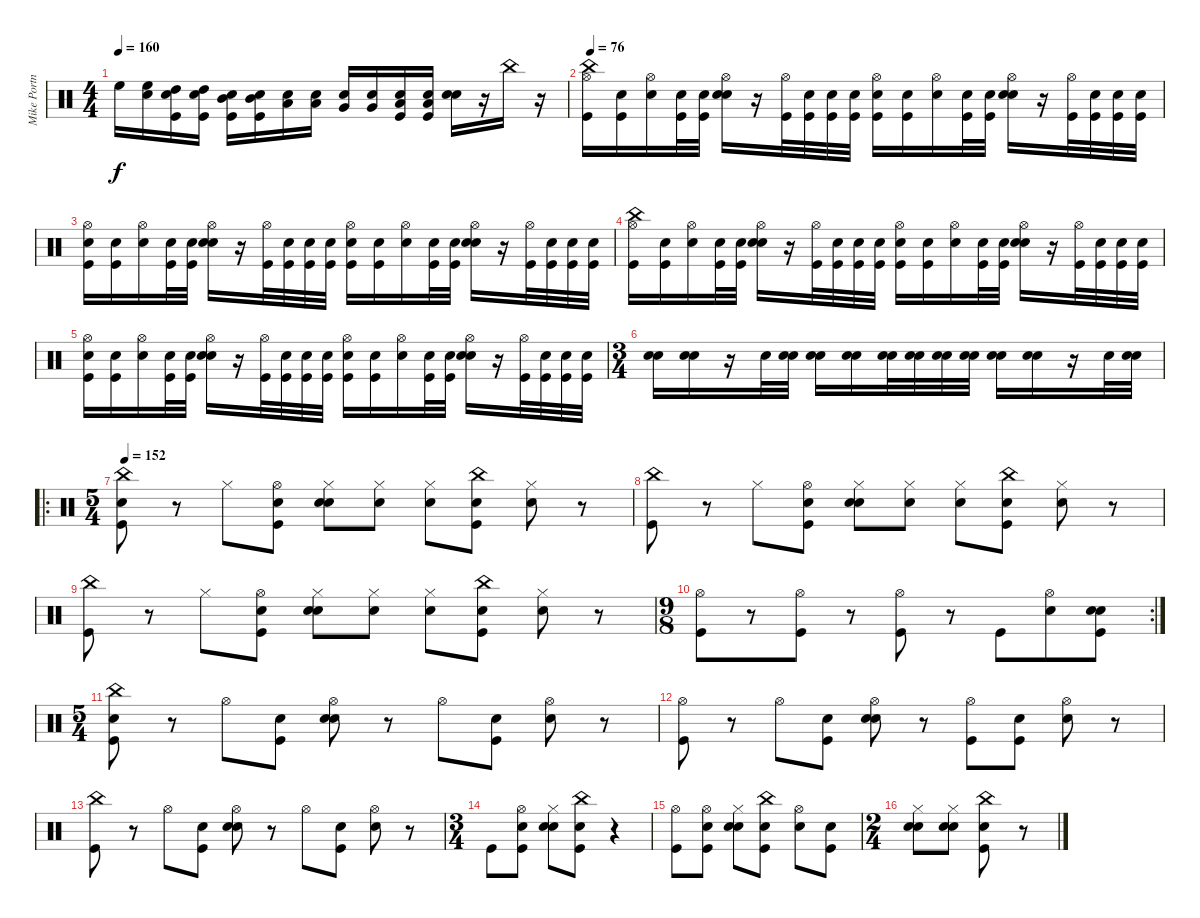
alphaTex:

\track ("Mike Portnoy" "Mike Portn") {instrument percussion}
\staff {score}
\articulation defaults
\ts (4 4)
\tempo 160
\clef neutral
\ks c "High Floor Tom (hit)".16{dy f}
("Snare (hit)" "High Floor Tom (hit)").16 ("Snare (hit)" "Kick (hit)" "High Tom (hit)").16 ("Snare (hit)" "Kick (hit)" "High Tom (hit)").16 ("Snare (hit)" "Kick (hit)" "Mid Tom (hit)").16 ("Snare (hit)" "Kick (hit)" "Mid Tom (hit)").16 ("Snare (hit)" "Low Tom (hit)").16 ("Snare (hit)" "Low Tom (hit)").16 ("Snare (hit)" "Very Low Tom (hit)").16 ("Snare (hit)" "Very Low Tom (hit)").16 ("Snare (hit)" "Kick (hit)" "Low Floor Tom (hit)").16 ("Snare (hit)" "Kick (hit)" "Low Floor Tom (hit)").16 ("Snare (hit)" "Snare (hit) 2").16 r.16 "China (hit)".16 r.16 |
\tempo 76
("Kick (hit)" "Hi-Hat (open)" "China (hit)").16 ("Snare (hit)" "Kick (hit)").16 ("Snare (hit)" "Hi-Hat (open)").16 ("Snare (hit)" "Kick (hit)").32 ("Snare (hit)" "Kick (hit)").32 ("Snare (hit)" "Snare (hit) 2" "Hi-Hat (open)").16 r.16 ("Kick (hit)" "Hi-Hat (open)").32 ("Snare (hit)" "Kick (hit)").32 ("Snare (hit)" "Kick (hit)").32 ("Snare (hit)" "Kick (hit)").32 ("Snare (hit)" "Kick (hit)" "Hi-Hat (open)").16 ("Snare (hit)" "Kick (hit)").16 ("Snare (hit)" "Hi-Hat (open)").16 ("Snare (hit)" "Kick (hit)").32 ("Snare (hit)" "Kick (hit)").32 ("Snare (hit)" "Snare (hit) 2" "Hi-Hat (open)").16 r.16 ("Kick (hit)" "Hi-Hat (open)").32 ("Snare (hit)" "Kick (hit)").32 ("Snare (hit)" "Kick (hit)").32 ("Snare (hit)" "Kick (hit)").32 |
("Snare (hit)" "Kick (hit)" "Hi-Hat (open)").16 ("Snare (hit)" "Kick (hit)").16 ("Snare (hit)" "Hi-Hat (open)").16 ("Snare (hit)" "Kick (hit)").32 ("Snare (hit)" "Kick (hit)").32 ("Snare (hit)" "Snare (hit) 2" "Hi-Hat (open)").16 r.16 ("Kick (hit)" "Hi-Hat (open)").32 ("Snare (hit)" "Kick (hit)").32 ("Snare (hit)" "Kick (hit)").32 ("Snare (hit)" "Kick (hit)").32 ("Snare (hit)" "Kick (hit)" "Hi-Hat (open)").16 ("Snare (hit)" "Kick (hit)").16 ("Snare (hit)" "Hi-Hat (open)").16 ("Snare (hit)" "Kick (hit)").32 ("Snare (hit)" "Kick (hit)").32 ("Snare (hit)" "Snare (hit) 2" "Hi-Hat (open)").16 r.16 ("Kick (hit)" "Hi-Hat (open)").32 ("Snare (hit)" "Kick (hit)").32 ("Snare (hit)" "Kick (hit)").32 ("Snare (hit)" "Kick (hit)").32 |
("Kick (hit)" "Hi-Hat (open)" "China (hit)").16 ("Snare (hit)" "Kick (hit)").16 ("Snare (hit)" "Hi-Hat (open)").16 ("Snare (hit)" "Kick (hit)").32 ("Snare (hit)" "Kick (hit)").32 ("Snare (hit)" "Snare (hit) 2" "Hi-Hat (open)").16 r.16 ("Kick (hit)" "Hi-Hat (open)").32 ("Snare (hit)" "Kick (hit)").32 ("Snare (hit)" "Kick (hit)").32 ("Snare (hit)" "Kick (hit)").32 ("Snare (hit)" "Kick (hit)" "Hi-Hat (open)").16 ("Snare (hit)" "Kick (hit)").16 ("Snare (hit)" "Hi-Hat (open)").16 ("Snare (hit)" "Kick (hit)").32 ("Snare (hit)" "Kick (hit)").32 ("Snare (hit)" "Snare (hit) 2" "Hi-Hat (open)").16 r.16 ("Kick (hit)" "Hi-Hat (open)").32 ("Snare (hit)" "Kick (hit)").32 ("Snare (hit)" "Kick (hit)").32 ("Snare (hit)" "Kick (hit)").32 |
("Snare (hit)" "Kick (hit)" "Hi-Hat (open)").16 ("Snare (hit)" "Kick (hit)").16 ("Snare (hit)" "Hi-Hat (open)").16 ("Snare (hit)" "Kick (hit)").32 ("Snare (hit)" "Kick (hit)").32 ("Snare (hit)" "Snare (hit) 2" "Hi-Hat (open)").16 r.16 ("Kick (hit)" "Hi-Hat (open)").32 ("Snare (hit)" "Kick (hit)").32 ("Snare (hit)" "Kick (hit)").32 ("Snare (hit)" "Kick (hit)").32 ("Snare (hit)" "Kick (hit)" "Hi-Hat (open)").16 ("Snare (hit)" "Kick (hit)").16 ("Snare (hit)" "Hi-Hat (open)").16 ("Snare (hit)" "Kick (hit)").32 ("Snare (hit)" "Kick (hit)").32 ("Snare (hit)" "Snare (hit) 2" "Hi-Hat (open)").16 r.16 ("Kick (hit)" "Hi-Hat (open)").32 ("Snare (hit)" "Kick (hit)").32 ("Snare (hit)" "Kick (hit)").32 ("Snare (hit)" "Kick (hit)").32 |
\ts (3 4)
("Snare (hit)" "Snare (hit) 2").16 ("Snare (hit)" "Snare (hit) 2").16 r.16 "Snare (hit) 2".32 ("Snare (hit)" "Snare (hit) 2").32 ("Snare (hit)" "Snare (hit) 2").16 ("Snare (hit)" "Snare (hit) 2").16 ("Snare (hit)" "Snare (hit) 2").32 ("Snare (hit)" "Snare (hit) 2").32 ("Snare (hit)" "Snare (hit) 2").32 ("Snare (hit)" "Snare (hit) 2").32 ("Snare (hit)" "Snare (hit) 2").16 ("Snare (hit)" "Snare (hit) 2").16 r.16 "Snare (hit) 2".32 ("Snare (hit)" "Snare (hit) 2").32 |
\ro
\ts (5 4)
\tempo 152
("Snare (hit)" "Kick (hit)" "China (hit)").8 r.8 "Hi-Hat (closed)".8 ("Snare (hit)" "Kick (hit)" "Hi-Hat (open)").8 ("Snare (hit)" "Snare (hit) 2" "Hi-Hat (closed)").8 ("Snare (hit)" "Hi-Hat (closed)").8 ("Snare (hit)" "Hi-Hat (closed)").8 ("Snare (hit)" "Kick (hit)" "China (hit)").8 ("Snare (hit)" "Hi-Hat (closed)").8 r.8 |
("Kick (hit)" "China (hit)").8 r.8 "Hi-Hat (closed)".8 ("Snare (hit)" "Kick (hit)" "Hi-Hat (open)").8 ("Snare (hit)" "Snare (hit) 2" "Hi-Hat (closed)").8 ("Snare (hit)" "Hi-Hat (closed)").8 ("Snare (hit)" "Hi-Hat (closed)").8 ("Snare (hit)" "Kick (hit)" "China (hit)").8 ("Snare (hit)" "Hi-Hat (closed)").8 r.8 |
("Kick (hit)" "China (hit)").8 r.8 "Hi-Hat (closed)".8 ("Snare (hit)" "Kick (hit)" "Hi-Hat (open)").8 ("Snare (hit)" "Snare (hit) 2" "Hi-Hat (closed)").8 ("Snare (hit)" "Hi-Hat (closed)").8 ("Snare (hit)" "Hi-Hat (closed)").8 ("Snare (hit)" "Kick (hit)" "China (hit)").8 ("Snare (hit)" "Hi-Hat (closed)").8 r.8 |
\rc 2
\ts (9 8)
("Kick (hit)" "Hi-Hat (open)").8 r.8 ("Kick (hit)" "Hi-Hat (open)").8 r.8 ("Kick (hit)" "Hi-Hat (open)").8 r.8 "Kick (hit)".8 ("Snare (hit)" "Hi-Hat (open)").8 ("Snare (hit)" "Kick (hit)" "Snare (hit) 2").8 |
\ts (5 4)
("Snare (hit)" "Kick (hit)" "China (hit)").8 r.8 "Hi-Hat (open)".8 ("Snare (hit)" "Kick (hit)").8 ("Snare (hit)" "Snare (hit) 2" "Hi-Hat (open)").8 r.8 "Hi-Hat (open)".8 ("Snare (hit)" "Kick (hit)").8 ("Snare (hit)" "Hi-Hat (open)").8 r.8 |
("Kick (hit)" "Hi-Hat (open)").8 r.8 "Hi-Hat (open)".8 ("Snare (hit)" "Kick (hit)").8 ("Snare (hit)" "Snare (hit) 2" "Hi-Hat (open)").8 r.8 ("Kick (hit)" "Hi-Hat (open)").8 ("Snare (hit)" "Kick (hit)").8 ("Snare (hit)" "Hi-Hat (open)").8 r.8 |
("Kick (hit)" "China (hit)").8 r.8 "Hi-Hat (open)".8 ("Snare (hit)" "Kick (hit)").8 ("Snare (hit)" "Snare (hit) 2" "Hi-Hat (open)").8 r.8 "Hi-Hat (open)".8 ("Snare (hit)" "Kick (hit)").8 ("Snare (hit)" "Hi-Hat (open)").8 r.8 |
\ts (3 4)
"Kick (hit)".8 ("Snare (hit)" "Kick (hit)" "Hi-Hat (open)").8 ("Snare (hit)" "Snare (hit) 2" "Hi-Hat (closed)").8 ("Snare (hit)" "Kick (hit)" "China (hit)").8 r.4 |
("Kick (hit)" "Hi-Hat (open)").8 ("Snare (hit)" "Kick (hit)" "Hi-Hat (open)").8 ("Snare (hit)" "Snare (hit) 2" "Hi-Hat (closed)").8 ("Snare (hit)" "Kick (hit)" "China (hit)").8 ("Snare (hit)" "Hi-Hat (open)").8 ("Snare (hit)" "Kick (hit)").8 |
\ts (2 4)
("Snare (hit)" "Snare (hit) 2" "Hi-Hat (closed)").8 ("Snare (hit)" "Snare (hit) 2" "Hi-Hat (closed)").8 ("Snare (hit)" "Kick (hit)" "China (hit)").8 r.8
